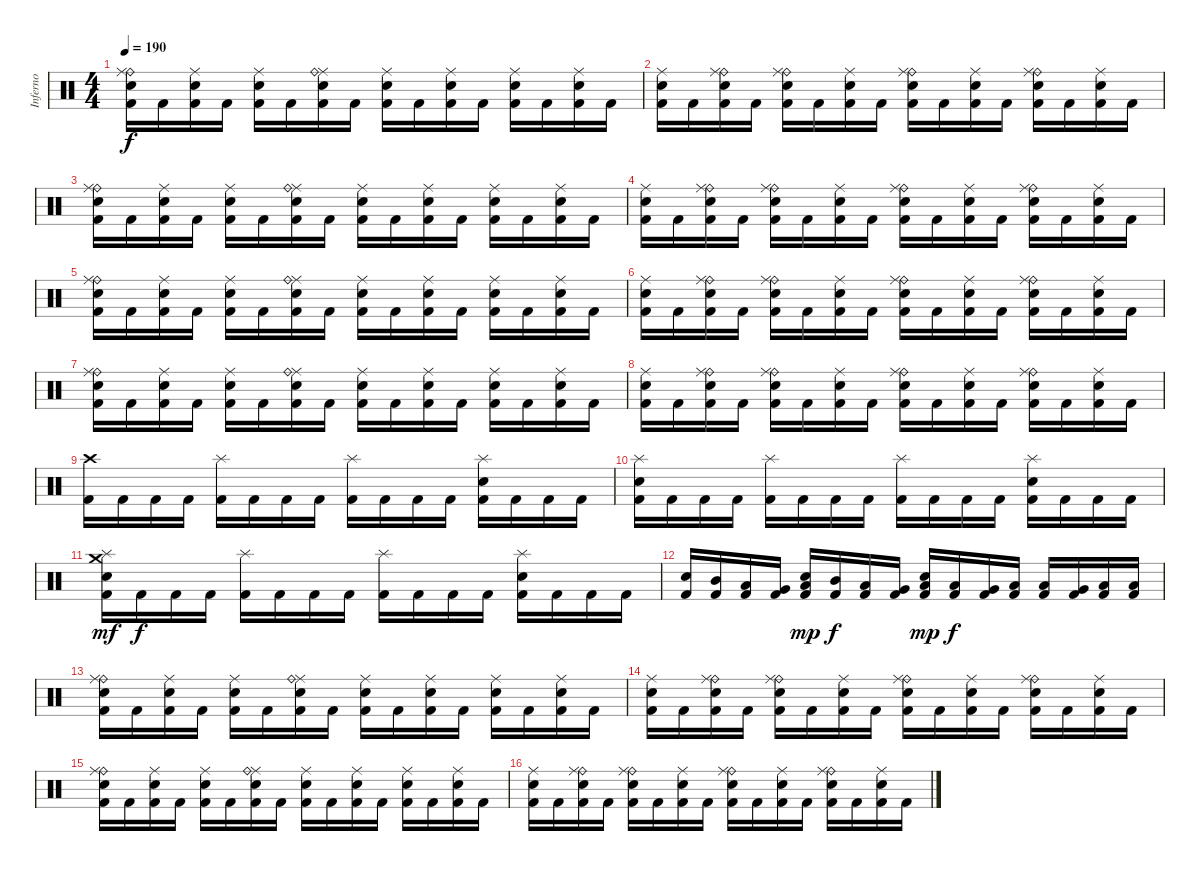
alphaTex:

\track ("Inferno" "Inferno") {instrument percussion}
\staff {score}
\articulation defaults
\ts (4 4)
\section ("" "")
\tempo 190
\clef neutral
\ks c
("Ride (bell)" "Ride (middle)" "Snare (hit) 2" "Kick (hit) 2").16{dy f} "Kick (hit) 2".16 ("Ride (middle)" "Snare (hit) 2" "Kick (hit) 2").16 "Kick (hit) 2".16 ("Ride (middle)" "Snare (hit) 2" "Kick (hit) 2").16 "Kick (hit) 2".16 ("Ride (middle)" "Ride (bell)" "Snare (hit) 2" "Kick (hit) 2").16 "Kick (hit) 2".16 ("Ride (middle)" "Snare (hit) 2" "Kick (hit) 2").16 "Kick (hit) 2".16 ("Ride (middle)" "Snare (hit) 2" "Kick (hit) 2").16 "Kick (hit) 2".16 ("Ride (middle)" "Snare (hit) 2" "Kick (hit) 2").16 "Kick (hit) 2".16 ("Ride (middle)" "Snare (hit) 2" "Kick (hit) 2").16 "Kick (hit) 2".16 |
("Ride (middle)" "Snare (hit) 2" "Kick (hit) 2").16 "Kick (hit) 2".16 ("Ride (bell)" "Ride (middle)" "Snare (hit) 2" "Kick (hit) 2").16 "Kick (hit) 2".16 ("Ride (bell)" "Ride (middle)" "Snare (hit) 2" "Kick (hit) 2").16 "Kick (hit) 2".16 ("Ride (middle)" "Snare (hit) 2" "Kick (hit) 2").16 "Kick (hit) 2".16 ("Ride (bell)" "Ride (middle)" "Snare (hit) 2" "Kick (hit) 2").16 "Kick (hit) 2".16 ("Ride (middle)" "Snare (hit) 2" "Kick (hit) 2").16 "Kick (hit) 2".16 ("Ride (bell)" "Ride (middle)" "Snare (hit) 2" "Kick (hit) 2").16 "Kick (hit) 2".16 ("Ride (middle)" "Snare (hit) 2" "Kick (hit) 2").16 "Kick (hit) 2".16 |
("Ride (bell)" "Ride (middle)" "Snare (hit) 2" "Kick (hit) 2").16 "Kick (hit) 2".16 ("Ride (middle)" "Snare (hit) 2" "Kick (hit) 2").16 "Kick (hit) 2".16 ("Ride (middle)" "Snare (hit) 2" "Kick (hit) 2").16 "Kick (hit) 2".16 ("Ride (middle)" "Ride (bell)" "Snare (hit) 2" "Kick (hit) 2").16 "Kick (hit) 2".16 ("Ride (middle)" "Snare (hit) 2" "Kick (hit) 2").16 "Kick (hit) 2".16 ("Ride (middle)" "Snare (hit) 2" "Kick (hit) 2").16 "Kick (hit) 2".16 ("Ride (middle)" "Snare (hit) 2" "Kick (hit) 2").16 "Kick (hit) 2".16 ("Ride (middle)" "Snare (hit) 2" "Kick (hit) 2").16 "Kick (hit) 2".16 |
("Ride (middle)" "Snare (hit) 2" "Kick (hit) 2").16 "Kick (hit) 2".16 ("Ride (bell)" "Ride (middle)" "Snare (hit) 2" "Kick (hit) 2").16 "Kick (hit) 2".16 ("Ride (bell)" "Ride (middle)" "Snare (hit) 2" "Kick (hit) 2").16 "Kick (hit) 2".16 ("Ride (middle)" "Snare (hit) 2" "Kick (hit) 2").16 "Kick (hit) 2".16 ("Ride (bell)" "Ride (middle)" "Snare (hit) 2" "Kick (hit) 2").16 "Kick (hit) 2".16 ("Ride (middle)" "Snare (hit) 2" "Kick (hit) 2").16 "Kick (hit) 2".16 ("Ride (bell)" "Ride (middle)" "Snare (hit) 2" "Kick (hit) 2").16 "Kick (hit) 2".16 ("Ride (middle)" "Snare (hit) 2" "Kick (hit) 2").16 "Kick (hit) 2".16 |
("Ride (bell)" "Ride (middle)" "Snare (hit) 2" "Kick (hit) 2").16 "Kick (hit) 2".16 ("Ride (middle)" "Snare (hit) 2" "Kick (hit) 2").16 "Kick (hit) 2".16 ("Ride (middle)" "Snare (hit) 2" "Kick (hit) 2").16 "Kick (hit) 2".16 ("Ride (middle)" "Ride (bell)" "Snare (hit) 2" "Kick (hit) 2").16 "Kick (hit) 2".16 ("Ride (middle)" "Snare (hit) 2" "Kick (hit) 2").16 "Kick (hit) 2".16 ("Ride (middle)" "Snare (hit) 2" "Kick (hit) 2").16 "Kick (hit) 2".16 ("Ride (middle)" "Snare (hit) 2" "Kick (hit) 2").16 "Kick (hit) 2".16 ("Ride (middle)" "Snare (hit) 2" "Kick (hit) 2").16 "Kick (hit) 2".16 |
("Ride (middle)" "Snare (hit) 2" "Kick (hit) 2").16 "Kick (hit) 2".16 ("Ride (bell)" "Ride (middle)" "Snare (hit) 2" "Kick (hit) 2").16 "Kick (hit) 2".16 ("Ride (bell)" "Ride (middle)" "Snare (hit) 2" "Kick (hit) 2").16 "Kick (hit) 2".16 ("Ride (middle)" "Snare (hit) 2" "Kick (hit) 2").16 "Kick (hit) 2".16 ("Ride (bell)" "Ride (middle)" "Snare (hit) 2" "Kick (hit) 2").16 "Kick (hit) 2".16 ("Ride (middle)" "Snare (hit) 2" "Kick (hit) 2").16 "Kick (hit) 2".16 ("Ride (bell)" "Ride (middle)" "Snare (hit) 2" "Kick (hit) 2").16 "Kick (hit) 2".16 ("Ride (middle)" "Snare (hit) 2" "Kick (hit) 2").16 "Kick (hit) 2".16 |
("Ride (bell)" "Ride (middle)" "Snare (hit) 2" "Kick (hit) 2").16 "Kick (hit) 2".16 ("Ride (middle)" "Snare (hit) 2" "Kick (hit) 2").16 "Kick (hit) 2".16 ("Ride (middle)" "Snare (hit) 2" "Kick (hit) 2").16 "Kick (hit) 2".16 ("Ride (middle)" "Ride (bell)" "Snare (hit) 2" "Kick (hit) 2").16 "Kick (hit) 2".16 ("Ride (middle)" "Snare (hit) 2" "Kick (hit) 2").16 "Kick (hit) 2".16 ("Ride (middle)" "Snare (hit) 2" "Kick (hit) 2").16 "Kick (hit) 2".16 ("Ride (middle)" "Snare (hit) 2" "Kick (hit) 2").16 "Kick (hit) 2".16 ("Ride (middle)" "Snare (hit) 2" "Kick (hit) 2").16 "Kick (hit) 2".16 |
("Ride (middle)" "Snare (hit) 2" "Kick (hit) 2").16 "Kick (hit) 2".16 ("Ride (bell)" "Ride (middle)" "Snare (hit) 2" "Kick (hit) 2").16 "Kick (hit) 2".16 ("Ride (bell)" "Ride (middle)" "Snare (hit) 2" "Kick (hit) 2").16 "Kick (hit) 2".16 ("Ride (middle)" "Snare (hit) 2" "Kick (hit) 2").16 "Kick (hit) 2".16 ("Ride (bell)" "Ride (middle)" "Snare (hit) 2" "Kick (hit) 2").16 "Kick (hit) 2".16 ("Ride (middle)" "Snare (hit) 2" "Kick (hit) 2").16 "Kick (hit) 2".16 ("Ride (bell)" "Ride (middle)" "Snare (hit) 2" "Kick (hit) 2").16 "Kick (hit) 2".16 ("Ride (middle)" "Snare (hit) 2" "Kick (hit) 2").16 "Kick (hit) 2".16 |
\section ("" "")
("Crash high (hit)" "Kick (hit) 2").16 "Kick (hit) 2".16 "Kick (hit) 2".16 "Kick (hit) 2".16 ("Splash (hit)" "Kick (hit) 2").16 "Kick (hit) 2".16 "Kick (hit) 2".16 "Kick (hit) 2".16 ("Splash (hit)" "Kick (hit) 2").16 "Kick (hit) 2".16 "Kick (hit) 2".16 "Kick (hit) 2".16 ("Splash (hit)" "Snare (hit) 2" "Kick (hit) 2").16 "Kick (hit) 2".16 "Kick (hit) 2".16 "Kick (hit) 2".16 |
("Splash (hit)" "Snare (hit) 2" "Kick (hit) 2").16 "Kick (hit) 2".16 "Kick (hit) 2".16 "Kick (hit) 2".16 ("Splash (hit)" "Kick (hit) 2").16 "Kick (hit) 2".16 "Kick (hit) 2".16 "Kick (hit) 2".16 ("Splash (hit)" "Kick (hit) 2").16 "Kick (hit) 2".16 "Kick (hit) 2".16 "Kick (hit) 2".16 ("Splash (hit)" "Snare (hit) 2" "Kick (hit) 2").16 "Kick (hit) 2".16 "Kick (hit) 2".16 "Kick (hit) 2".16 |
("Splash (hit)" "Crash medium (hit)" "Snare (hit) 2" "Kick (hit) 2").16{dy mf} "Kick (hit) 2".16{dy f} "Kick (hit) 2".16 "Kick (hit) 2".16 ("Splash (hit)" "Kick (hit) 2").16 "Kick (hit) 2".16 "Kick (hit) 2".16 "Kick (hit) 2".16 ("Splash (hit)" "Kick (hit) 2").16 "Kick (hit) 2".16 "Kick (hit) 2".16 "Kick (hit) 2".16 ("Splash (hit)" "Snare (hit) 2" "Kick (hit) 2").16 "Kick (hit) 2".16 "Kick (hit) 2".16 "Kick (hit) 2".16 |
("Snare (hit) 2" "Kick (hit) 2").16 ("Mid Tom (hit)" "Kick (hit) 2").16 ("Low Tom (hit)" "Kick (hit) 2").16 ("Very Low Tom (hit)" "Kick (hit) 2").16 ("Low Floor Tom (hit)" "Snare (hit) 2" "Kick (hit) 2").16{dy mp} ("Mid Tom (hit)" "Kick (hit) 2").16{dy f} ("Low Tom (hit)" "Kick (hit) 2").16 ("Very Low Tom (hit)" "Kick (hit) 2").16 ("Low Floor Tom (hit)" "Snare (hit) 2" "Kick (hit) 2").16{dy mp} ("Low Tom (hit)" "Kick (hit) 2").16{dy f} ("Very Low Tom (hit)" "Kick (hit) 2").16 ("Low Floor Tom (hit)" "Kick (hit) 2").16 ("Low Tom (hit)" "Kick (hit) 2").16 ("Very Low Tom (hit)" "Kick (hit) 2").16 ("Low Floor Tom (hit)" "Kick (hit) 2").16 ("Low Floor Tom (hit)" "Kick (hit) 2").16 |
("Ride (bell)" "Ride (middle)" "Snare (hit) 2" "Kick (hit) 2").16 "Kick (hit) 2".16 ("Ride (middle)" "Snare (hit) 2" "Kick (hit) 2").16 "Kick (hit) 2".16 ("Ride (middle)" "Snare (hit) 2" "Kick (hit) 2").16 "Kick (hit) 2".16 ("Ride (middle)" "Ride (bell)" "Snare (hit) 2" "Kick (hit) 2").16 "Kick (hit) 2".16 ("Ride (middle)" "Snare (hit) 2" "Kick (hit) 2").16 "Kick (hit) 2".16 ("Ride (middle)" "Snare (hit) 2" "Kick (hit) 2").16 "Kick (hit) 2".16 ("Ride (middle)" "Snare (hit) 2" "Kick (hit) 2").16 "Kick (hit) 2".16 ("Ride (middle)" "Snare (hit) 2" "Kick (hit) 2").16 "Kick (hit) 2".16 |
("Ride (middle)" "Snare (hit) 2" "Kick (hit) 2").16 "Kick (hit) 2".16 ("Ride (bell)" "Ride (middle)" "Snare (hit) 2" "Kick (hit) 2").16 "Kick (hit) 2".16 ("Ride (bell)" "Ride (middle)" "Snare (hit) 2" "Kick (hit) 2").16 "Kick (hit) 2".16 ("Ride (middle)" "Snare (hit) 2" "Kick (hit) 2").16 "Kick (hit) 2".16 ("Ride (bell)" "Ride (middle)" "Snare (hit) 2" "Kick (hit) 2").16 "Kick (hit) 2".16 ("Ride (middle)" "Snare (hit) 2" "Kick (hit) 2").16 "Kick (hit) 2".16 ("Ride (bell)" "Ride (middle)" "Snare (hit) 2" "Kick (hit) 2").16 "Kick (hit) 2".16 ("Ride (middle)" "Snare (hit) 2" "Kick (hit) 2").16 "Kick (hit) 2".16 |
("Ride (bell)" "Ride (middle)" "Snare (hit) 2" "Kick (hit) 2").16 "Kick (hit) 2".16 ("Ride (middle)" "Snare (hit) 2" "Kick (hit) 2").16 "Kick (hit) 2".16 ("Ride (middle)" "Snare (hit) 2" "Kick (hit) 2").16 "Kick (hit) 2".16 ("Ride (middle)" "Ride (bell)" "Snare (hit) 2" "Kick (hit) 2").16 "Kick (hit) 2".16 ("Ride (middle)" "Snare (hit) 2" "Kick (hit) 2").16 "Kick (hit) 2".16 ("Ride (middle)" "Snare (hit) 2" "Kick (hit) 2").16 "Kick (hit) 2".16 ("Ride (middle)" "Snare (hit) 2" "Kick (hit) 2").16 "Kick (hit) 2".16 ("Ride (middle)" "Snare (hit) 2" "Kick (hit) 2").16 "Kick (hit) 2".16 |
("Ride (middle)" "Snare (hit) 2" "Kick (hit) 2").16 "Kick (hit) 2".16 ("Ride (bell)" "Ride (middle)" "Snare (hit) 2" "Kick (hit) 2").16 "Kick (hit) 2".16 ("Ride (bell)" "Ride (middle)" "Snare (hit) 2" "Kick (hit) 2").16 "Kick (hit) 2".16 ("Ride (middle)" "Snare (hit) 2" "Kick (hit) 2").16 "Kick (hit) 2".16 ("Ride (bell)" "Ride (middle)" "Snare (hit) 2" "Kick (hit) 2").16 "Kick (hit) 2".16 ("Ride (middle)" "Snare (hit) 2" "Kick (hit) 2").16 "Kick (hit) 2".16 ("Ride (bell)" "Ride (middle)" "Snare (hit) 2" "Kick (hit) 2").16 "Kick (hit) 2".16 ("Ride (middle)" "Snare (hit) 2" "Kick (hit) 2").16 "Kick (hit) 2".16
